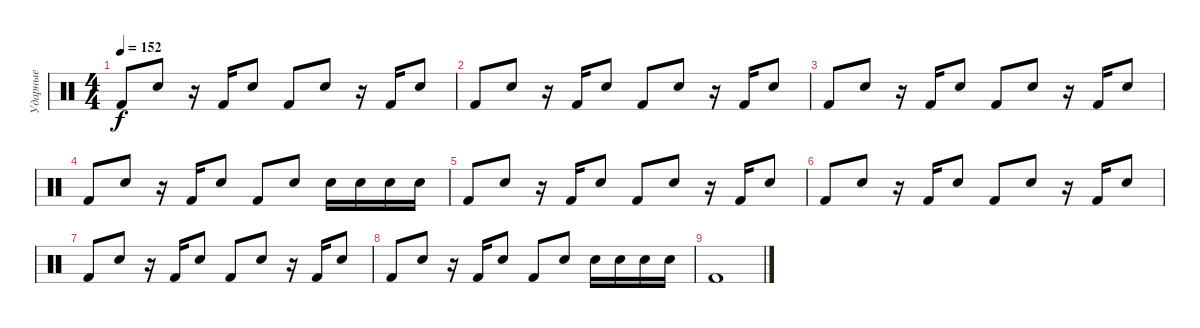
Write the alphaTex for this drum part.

\track ("Ударные" "Ударные") {instrument percussion}
\staff {score}
\articulation defaults
\ts (4 4)
\tempo 152
\clef neutral
\ks c "Kick (hit) 2".8{dy f} "Snare (hit) 2".8
r.16 "Kick (hit) 2".16 "Snare (hit) 2".8 "Kick (hit) 2".8 "Snare (hit) 2".8 r.16 "Kick (hit) 2".16 "Snare (hit) 2".8 |
"Kick (hit) 2".8 "Snare (hit) 2".8 r.16 "Kick (hit) 2".16 "Snare (hit) 2".8 "Kick (hit) 2".8 "Snare (hit) 2".8 r.16 "Kick (hit) 2".16 "Snare (hit) 2".8 |
"Kick (hit) 2".8 "Snare (hit) 2".8 r.16 "Kick (hit) 2".16 "Snare (hit) 2".8 "Kick (hit) 2".8 "Snare (hit) 2".8 r.16 "Kick (hit) 2".16 "Snare (hit) 2".8 |
"Kick (hit) 2".8 "Snare (hit) 2".8 r.16 "Kick (hit) 2".16 "Snare (hit) 2".8 "Kick (hit) 2".8 "Snare (hit) 2".8 "Snare (hit) 2".16 "Snare (hit) 2".16 "Snare (hit) 2".16 "Snare (hit) 2".16 |
"Kick (hit) 2".8 "Snare (hit) 2".8 r.16 "Kick (hit) 2".16 "Snare (hit) 2".8 "Kick (hit) 2".8 "Snare (hit) 2".8 r.16 "Kick (hit) 2".16 "Snare (hit) 2".8 |
"Kick (hit) 2".8 "Snare (hit) 2".8 r.16 "Kick (hit) 2".16 "Snare (hit) 2".8 "Kick (hit) 2".8 "Snare (hit) 2".8 r.16 "Kick (hit) 2".16 "Snare (hit) 2".8 |
"Kick (hit) 2".8 "Snare (hit) 2".8 r.16 "Kick (hit) 2".16 "Snare (hit) 2".8 "Kick (hit) 2".8 "Snare (hit) 2".8 r.16 "Kick (hit) 2".16 "Snare (hit) 2".8 |
"Kick (hit) 2".8 "Snare (hit) 2".8 r.16 "Kick (hit) 2".16 "Snare (hit) 2".8 "Kick (hit) 2".8 "Snare (hit) 2".8 "Snare (hit) 2".16 "Snare (hit) 2".16 "Snare (hit) 2".16 "Snare (hit) 2".16 |
"Kick (hit) 2".1
